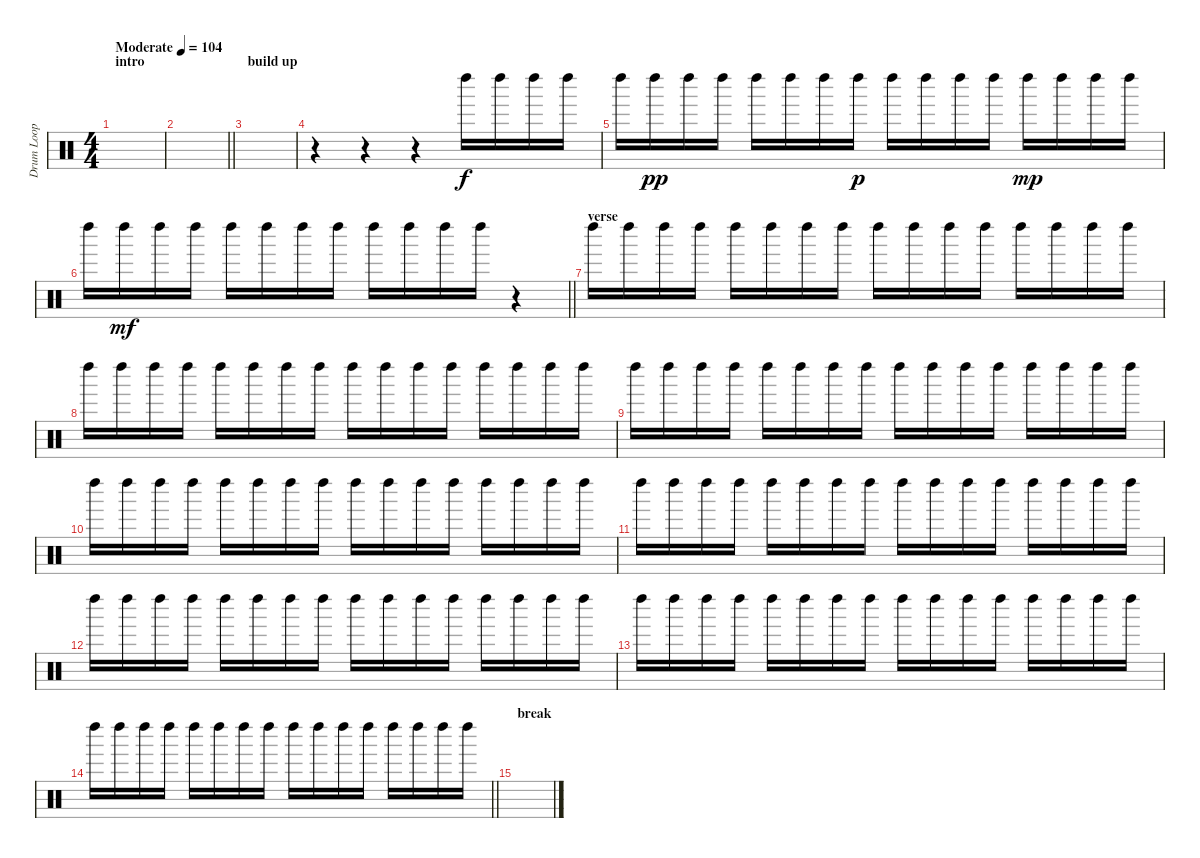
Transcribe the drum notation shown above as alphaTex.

\track ("Drum Loop" "Drum Loop") {instrument percussion}
\staff {score}
\articulation defaults
\ts (4 4)
\section ("" "intro")
\tempo (104 "Moderate")
\clef neutral
\ks c
|
\barLineRight lightlight
|
\section ("" "build up")
|
r.4 r.4 r.4 "Left Maraca (hit)".16 "Left Maraca (hit)".16 "Left Maraca (hit)".16 "Left Maraca (hit)".16 |
"Left Maraca (hit)".16 "Left Maraca (hit)".16{dy pp} "Left Maraca (hit)".16 "Left Maraca (hit)".16 "Left Maraca (hit)".16 "Left Maraca (hit)".16 "Left Maraca (hit)".16 "Left Maraca (hit)".16{dy p} "Left Maraca (hit)".16 "Left Maraca (hit)".16 "Left Maraca (hit)".16 "Left Maraca (hit)".16 "Left Maraca (hit)".16{dy mp} "Left Maraca (hit)".16 "Left Maraca (hit)".16 "Left Maraca (hit)".16 |
\barLineRight lightlight "Left Maraca (hit)".16 "Left Maraca (hit)".16{dy mf} "Left Maraca (hit)".16 "Left Maraca (hit)".16 "Left Maraca (hit)".16 "Left Maraca (hit)".16 "Left Maraca (hit)".16 "Left Maraca (hit)".16 "Left Maraca (hit)".16 "Left Maraca (hit)".16 "Left Maraca (hit)".16 "Left Maraca (hit)".16
r.4 |
\section ("" "verse")
"Left Maraca (hit)".16{volume 13} "Left Maraca (hit)".16 "Left Maraca (hit)".16 "Left Maraca (hit)".16 "Left Maraca (hit)".16 "Left Maraca (hit)".16 "Left Maraca (hit)".16 "Left Maraca (hit)".16 "Left Maraca (hit)".16 "Left Maraca (hit)".16 "Left Maraca (hit)".16 "Left Maraca (hit)".16 "Left Maraca (hit)".16 "Left Maraca (hit)".16 "Left Maraca (hit)".16 "Left Maraca (hit)".16 |
"Left Maraca (hit)".16 "Left Maraca (hit)".16 "Left Maraca (hit)".16 "Left Maraca (hit)".16 "Left Maraca (hit)".16 "Left Maraca (hit)".16 "Left Maraca (hit)".16 "Left Maraca (hit)".16 "Left Maraca (hit)".16 "Left Maraca (hit)".16 "Left Maraca (hit)".16 "Left Maraca (hit)".16 "Left Maraca (hit)".16 "Left Maraca (hit)".16 "Left Maraca (hit)".16 "Left Maraca (hit)".16 |
"Left Maraca (hit)".16 "Left Maraca (hit)".16 "Left Maraca (hit)".16 "Left Maraca (hit)".16 "Left Maraca (hit)".16 "Left Maraca (hit)".16 "Left Maraca (hit)".16 "Left Maraca (hit)".16 "Left Maraca (hit)".16 "Left Maraca (hit)".16 "Left Maraca (hit)".16 "Left Maraca (hit)".16 "Left Maraca (hit)".16 "Left Maraca (hit)".16 "Left Maraca (hit)".16 "Left Maraca (hit)".16 |
"Left Maraca (hit)".16 "Left Maraca (hit)".16 "Left Maraca (hit)".16 "Left Maraca (hit)".16 "Left Maraca (hit)".16 "Left Maraca (hit)".16 "Left Maraca (hit)".16 "Left Maraca (hit)".16 "Left Maraca (hit)".16 "Left Maraca (hit)".16 "Left Maraca (hit)".16 "Left Maraca (hit)".16 "Left Maraca (hit)".16 "Left Maraca (hit)".16 "Left Maraca (hit)".16 "Left Maraca (hit)".16 |
"Left Maraca (hit)".16 "Left Maraca (hit)".16 "Left Maraca (hit)".16 "Left Maraca (hit)".16 "Left Maraca (hit)".16 "Left Maraca (hit)".16 "Left Maraca (hit)".16 "Left Maraca (hit)".16 "Left Maraca (hit)".16 "Left Maraca (hit)".16 "Left Maraca (hit)".16 "Left Maraca (hit)".16 "Left Maraca (hit)".16 "Left Maraca (hit)".16 "Left Maraca (hit)".16 "Left Maraca (hit)".16 |
"Left Maraca (hit)".16 "Left Maraca (hit)".16 "Left Maraca (hit)".16 "Left Maraca (hit)".16 "Left Maraca (hit)".16 "Left Maraca (hit)".16 "Left Maraca (hit)".16 "Left Maraca (hit)".16 "Left Maraca (hit)".16 "Left Maraca (hit)".16 "Left Maraca (hit)".16 "Left Maraca (hit)".16 "Left Maraca (hit)".16 "Left Maraca (hit)".16 "Left Maraca (hit)".16 "Left Maraca (hit)".16 |
"Left Maraca (hit)".16 "Left Maraca (hit)".16 "Left Maraca (hit)".16 "Left Maraca (hit)".16 "Left Maraca (hit)".16 "Left Maraca (hit)".16 "Left Maraca (hit)".16 "Left Maraca (hit)".16 "Left Maraca (hit)".16 "Left Maraca (hit)".16 "Left Maraca (hit)".16 "Left Maraca (hit)".16 "Left Maraca (hit)".16 "Left Maraca (hit)".16 "Left Maraca (hit)".16 "Left Maraca (hit)".16 |
\barLineRight lightlight "Left Maraca (hit)".16 "Left Maraca (hit)".16 "Left Maraca (hit)".16 "Left Maraca (hit)".16 "Left Maraca (hit)".16 "Left Maraca (hit)".16 "Left Maraca (hit)".16 "Left Maraca (hit)".16 "Left Maraca (hit)".16 "Left Maraca (hit)".16 "Left Maraca (hit)".16 "Left Maraca (hit)".16 "Left Maraca (hit)".16 "Left Maraca (hit)".16 "Left Maraca (hit)".16 "Left Maraca (hit)".16
|
\section ("" "break")
